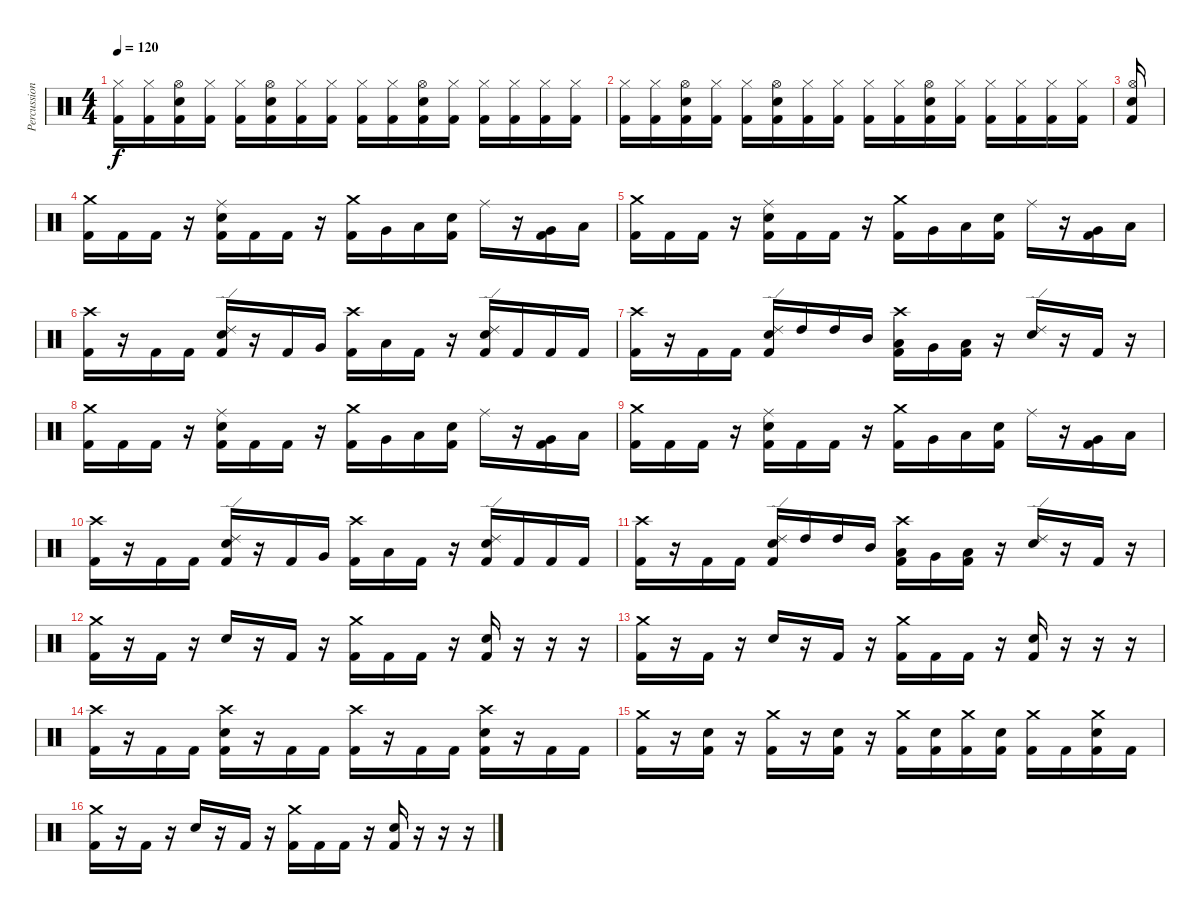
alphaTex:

\track ("Percussion" "Percussion") {instrument percussion}
\staff {score}
\articulation defaults
\ts (4 4)
\tempo 120
\clef neutral
\ks c
("Hi-Hat (closed)" "Kick (hit) 2").16{dy f} ("Hi-Hat (closed)" "Kick (hit) 2").16 ("Hi-Hat (open)" "Electric Snare (hit)" "Kick (hit) 2").16 ("Hi-Hat (closed)" "Kick (hit) 2").16 ("Hi-Hat (closed)" "Kick (hit) 2").16 ("Hi-Hat (open)" "Electric Snare (hit)" "Kick (hit) 2").16 ("Hi-Hat (closed)" "Kick (hit) 2").16 ("Hi-Hat (closed)" "Kick (hit) 2").16 ("Hi-Hat (closed)" "Kick (hit) 2").16 ("Hi-Hat (closed)" "Kick (hit) 2").16 ("Hi-Hat (open)" "Electric Snare (hit)" "Kick (hit) 2").16 ("Hi-Hat (closed)" "Kick (hit) 2").16 ("Hi-Hat (closed)" "Kick (hit) 2").16 ("Hi-Hat (closed)" "Kick (hit) 2").16 ("Hi-Hat (closed)" "Kick (hit) 2").16 ("Hi-Hat (closed)" "Kick (hit) 2").16 |
("Hi-Hat (closed)" "Kick (hit) 2").16 ("Hi-Hat (closed)" "Kick (hit) 2").16 ("Hi-Hat (open)" "Electric Snare (hit)" "Kick (hit) 2").16 ("Hi-Hat (closed)" "Kick (hit) 2").16 ("Hi-Hat (closed)" "Kick (hit) 2").16 ("Hi-Hat (open)" "Electric Snare (hit)" "Kick (hit) 2").16 ("Hi-Hat (closed)" "Kick (hit) 2").16 ("Hi-Hat (closed)" "Kick (hit) 2").16 ("Hi-Hat (closed)" "Kick (hit) 2").16 ("Hi-Hat (closed)" "Kick (hit) 2").16 ("Hi-Hat (open)" "Electric Snare (hit)" "Kick (hit) 2").16 ("Hi-Hat (closed)" "Kick (hit) 2").16 ("Hi-Hat (closed)" "Kick (hit) 2").16 ("Hi-Hat (closed)" "Kick (hit) 2").16 ("Hi-Hat (closed)" "Kick (hit) 2").16 ("Hi-Hat (closed)" "Kick (hit) 2").16 |
("Hi-Hat (open)" "Electric Snare (hit)" "Kick (hit) 2").16 |
("Crash medium (hit)" "Kick (hit) 2").16 "Kick (hit) 2".16 "Kick (hit) 2".16 r.16 ("Ride (middle)" "Electric Snare (hit)" "Kick (hit) 2").16 "Kick (hit) 2".16 "Kick (hit) 2".16 r.16 ("Crash medium (hit)" "Kick (hit) 2").16 "Very Low Tom (hit)".16 "Low Tom (hit)".16 ("Electric Snare (hit)" "Kick (hit) 2").16 "Ride (middle)".16 r.16 ("Very Low Tom (hit)" "Kick (hit) 2").16 "Low Floor Tom (hit)".16 |
("Crash medium (hit)" "Kick (hit) 2").16 "Kick (hit) 2".16 "Kick (hit) 2".16 r.16 ("Ride (middle)" "Electric Snare (hit)" "Kick (hit) 2").16 "Kick (hit) 2".16 "Kick (hit) 2".16 r.16 ("Crash medium (hit)" "Kick (hit) 2").16 "Very Low Tom (hit)".16 "Low Tom (hit)".16 ("Electric Snare (hit)" "Kick (hit) 2").16 "Ride (middle)".16 r.16 ("Very Low Tom (hit)" "Kick (hit) 2").16 "Low Floor Tom (hit)".16 |
("Crash high (hit)" "Kick (hit) 2").16 r.16 "Kick (hit) 2".16 "Kick (hit) 2".16 ("Ride (edge) 2" "Electric Snare (hit)" "Kick (hit) 2").16 r.16 "Kick (hit) 2".16 "Very Low Tom (hit)".16 ("Crash high (hit)" "Kick (hit) 2").16 "Low Floor Tom (hit)".16 "Kick (hit) 2".16 r.16 ("Ride (edge) 2" "Electric Snare (hit)" "Kick (hit) 2").16 "Kick (hit) 2".16 "Kick (hit) 2".16 "Kick (hit) 2".16 |
("Crash high (hit)" "Kick (hit) 2").16 r.16 "Kick (hit) 2".16 "Kick (hit) 2".16 ("Ride (edge) 2" "Electric Snare (hit)" "Kick (hit) 2").16 "High Tom (hit)".16 "High Tom (hit)".16 "Mid Tom (hit)".16 ("Crash high (hit)" "Low Tom (hit)" "Kick (hit) 2").16 "Very Low Tom (hit)".16 ("Low Floor Tom (hit)" "Kick (hit) 2").16 r.16 ("Ride (edge) 2" "Electric Snare (hit)").16 r.16 "Kick (hit) 2".16 r.16 |
("Crash medium (hit)" "Kick (hit) 2").16 "Kick (hit) 2".16 "Kick (hit) 2".16 r.16 ("Ride (middle)" "Electric Snare (hit)" "Kick (hit) 2").16 "Kick (hit) 2".16 "Kick (hit) 2".16 r.16 ("Crash medium (hit)" "Kick (hit) 2").16 "Very Low Tom (hit)".16 "Low Tom (hit)".16 ("Electric Snare (hit)" "Kick (hit) 2").16 "Ride (middle)".16 r.16 ("Very Low Tom (hit)" "Kick (hit) 2").16 "Low Floor Tom (hit)".16 |
("Crash medium (hit)" "Kick (hit) 2").16 "Kick (hit) 2".16 "Kick (hit) 2".16 r.16 ("Ride (middle)" "Electric Snare (hit)" "Kick (hit) 2").16 "Kick (hit) 2".16 "Kick (hit) 2".16 r.16 ("Crash medium (hit)" "Kick (hit) 2").16 "Very Low Tom (hit)".16 "Low Tom (hit)".16 ("Electric Snare (hit)" "Kick (hit) 2").16 "Ride (middle)".16 r.16 ("Very Low Tom (hit)" "Kick (hit) 2").16 "Low Floor Tom (hit)".16 |
("Crash high (hit)" "Kick (hit) 2").16 r.16 "Kick (hit) 2".16 "Kick (hit) 2".16 ("Ride (edge) 2" "Electric Snare (hit)" "Kick (hit) 2").16 r.16 "Kick (hit) 2".16 "Very Low Tom (hit)".16 ("Crash high (hit)" "Kick (hit) 2").16 "Low Floor Tom (hit)".16 "Kick (hit) 2".16 r.16 ("Ride (edge) 2" "Electric Snare (hit)" "Kick (hit) 2").16 "Kick (hit) 2".16 "Kick (hit) 2".16 "Kick (hit) 2".16 |
("Crash high (hit)" "Kick (hit) 2").16 r.16 "Kick (hit) 2".16 "Kick (hit) 2".16 ("Ride (edge) 2" "Electric Snare (hit)" "Kick (hit) 2").16 "High Tom (hit)".16 "High Tom (hit)".16 "Mid Tom (hit)".16 ("Crash high (hit)" "Low Tom (hit)" "Kick (hit) 2").16 "Very Low Tom (hit)".16 ("Low Floor Tom (hit)" "Kick (hit) 2").16 r.16 ("Ride (edge) 2" "Electric Snare (hit)").16 r.16 "Kick (hit) 2".16 r.16 |
("Crash medium (hit)" "Kick (hit) 2").16 r.16 "Kick (hit) 2".16 r.16 "Electric Snare (hit)".16 r.16 "Kick (hit) 2".16 r.16 ("Crash medium (hit)" "Kick (hit) 2").16 "Kick (hit) 2".16 "Kick (hit) 2".16 r.16 ("Electric Snare (hit)" "Kick (hit) 2").16 r.16 r.16 r.16 |
("Crash medium (hit)" "Kick (hit) 2").16 r.16 "Kick (hit) 2".16 r.16 "Electric Snare (hit)".16 r.16 "Kick (hit) 2".16 r.16 ("Crash medium (hit)" "Kick (hit) 2").16 "Kick (hit) 2".16 "Kick (hit) 2".16 r.16 ("Electric Snare (hit)" "Kick (hit) 2").16 r.16 r.16 r.16 |
("Crash high (hit)" "Kick (hit) 2").16 r.16 "Kick (hit) 2".16 "Kick (hit) 2".16 ("Crash high (hit)" "Electric Snare (hit)" "Kick (hit) 2").16 r.16 "Kick (hit) 2".16 "Kick (hit) 2".16 ("Crash high (hit)" "Kick (hit) 2").16 r.16 "Kick (hit) 2".16 "Kick (hit) 2".16 ("Crash high (hit)" "Electric Snare (hit)" "Kick (hit) 2").16 r.16 "Kick (hit) 2".16 "Kick (hit) 2".16 |
("Crash medium (hit)" "Kick (hit) 2").16 r.16 ("Electric Snare (hit)" "Kick (hit) 2").16 r.16 ("Crash medium (hit)" "Kick (hit) 2").16 r.16 ("Electric Snare (hit)" "Kick (hit) 2").16 r.16 ("Crash medium (hit)" "Kick (hit) 2").16 ("Electric Snare (hit)" "Kick (hit) 2").16 ("Crash medium (hit)" "Kick (hit) 2").16 ("Electric Snare (hit)" "Kick (hit) 2").16 ("Crash medium (hit)" "Kick (hit) 2").16 "Kick (hit) 2".16 ("Crash medium (hit)" "Electric Snare (hit)" "Kick (hit) 2").16 "Kick (hit) 2".16 |
("Crash medium (hit)" "Kick (hit) 2").16 r.16 "Kick (hit) 2".16 r.16 "Electric Snare (hit)".16 r.16 "Kick (hit) 2".16 r.16 ("Crash medium (hit)" "Kick (hit) 2").16 "Kick (hit) 2".16 "Kick (hit) 2".16 r.16 ("Electric Snare (hit)" "Kick (hit) 2").16 r.16 r.16 r.16
